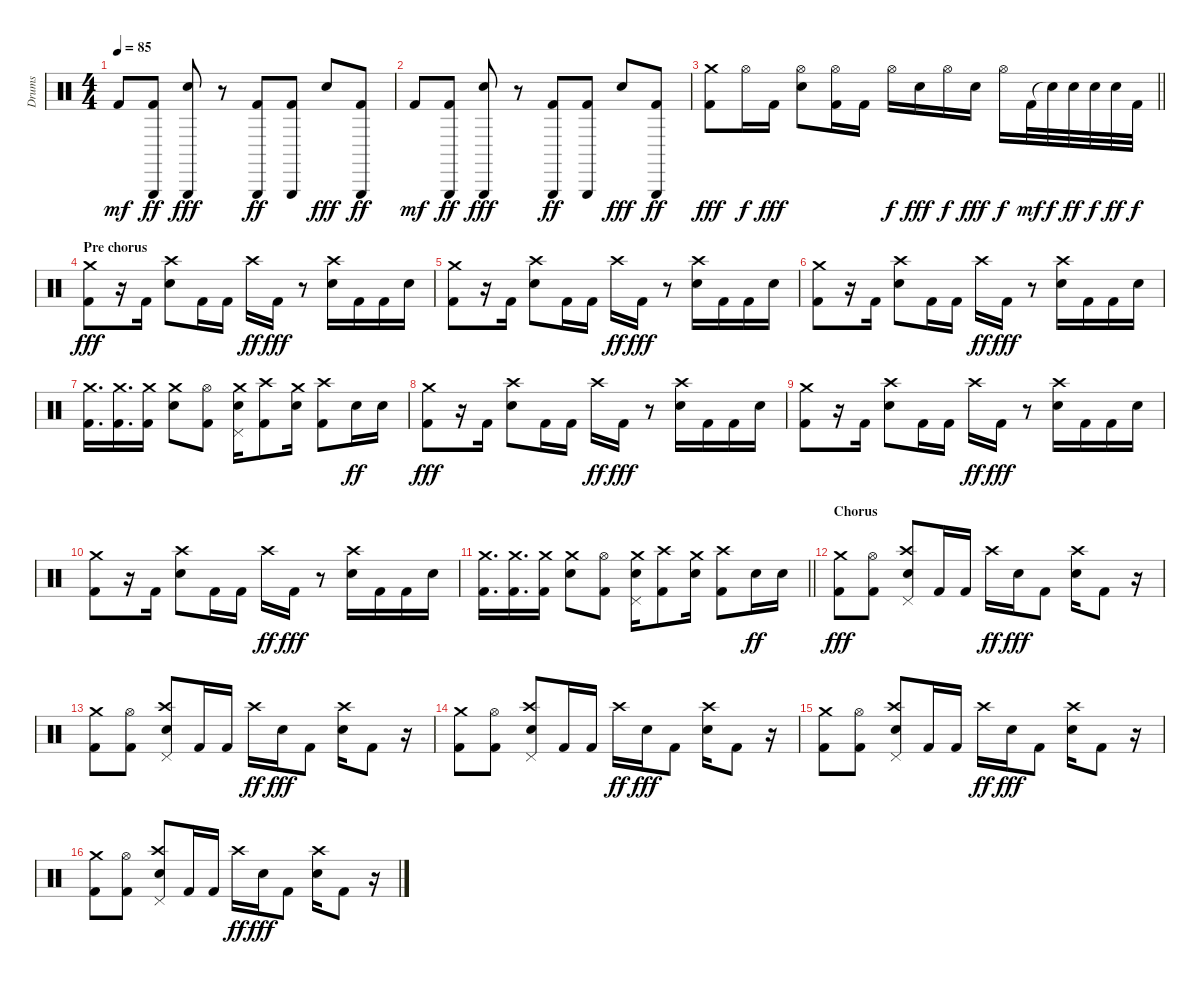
\track ("Drums" "Drums") {instrument percussion}
\staff {score}
\articulation defaults
\ts (4 4)
\tempo 85
\clef neutral
\ks c "Kick (hit) 2".8{dy mf}
("Triangle (hit)" "Kick (hit) 2").8{dy ff} ("Triangle (hit)" "Electric Snare (hit)").8{dy fff} r.8 ("Triangle (hit)" "Kick (hit) 2").8{dy ff} ("Triangle (hit)" "Kick (hit) 2").8 "Electric Snare (hit)".8{dy fff} ("Triangle (hit)" "Kick (hit) 2").8{dy ff} |
"Kick (hit) 2".8{dy mf} ("Triangle (hit)" "Kick (hit) 2").8{dy ff} ("Triangle (hit)" "Electric Snare (hit)").8{dy fff} r.8 ("Triangle (hit)" "Kick (hit) 2").8{dy ff} ("Triangle (hit)" "Kick (hit) 2").8 "Electric Snare (hit)".8{dy fff} ("Triangle (hit)" "Kick (hit) 2").8{dy ff} |
\barLineRight lightlight
("Crash medium (hit)" "Kick (hit) 2").8{dy fff} "Hi-Hat (open)".16{dy f} "Kick (hit) 2".16{dy fff} ("Hi-Hat (open)" "Electric Snare (hit)").8 ("Hi-Hat (open)" "Kick (hit) 2").16 "Kick (hit) 2".16 "Hi-Hat (open)".16{dy f} "Electric Snare (hit)".16{dy fff} "Hi-Hat (open)".16{dy f} "Electric Snare (hit)".16{dy fff} "Hi-Hat (open)".16{dy f} "Kick (hit) 2".32{dy mf} "Snare (hit)"{t}.32{dy f} "Electric Snare (hit)".32{dy ff} "Electric Snare (hit)".32{dy f} "Electric Snare (hit)".32{dy ff} "Kick (hit) 2".32{dy f} |
\section ("" "Pre chorus")
("Crash medium (hit)" "Kick (hit) 2").8{dy fff} r.16 "Kick (hit) 2".16 ("Crash high (hit)" "Electric Snare (hit)").8 "Kick (hit) 2".16 "Kick (hit) 2".16 "Crash high (hit)".16{dy ff} "Kick (hit) 2".16{dy fff} r.8 ("Crash high (hit)" "Electric Snare (hit)").16 "Kick (hit) 2".16 "Kick (hit) 2".16 "Electric Snare (hit)".16 |
("Crash medium (hit)" "Kick (hit) 2").8 r.16 "Kick (hit) 2".16 ("Crash high (hit)" "Electric Snare (hit)").8 "Kick (hit) 2".16 "Kick (hit) 2".16 "Crash high (hit)".16{dy ff} "Kick (hit) 2".16{dy fff} r.8 ("Crash high (hit)" "Electric Snare (hit)").16 "Kick (hit) 2".16 "Kick (hit) 2".16 "Electric Snare (hit)".16 |
("Crash medium (hit)" "Kick (hit) 2").8 r.16 "Kick (hit) 2".16 ("Crash high (hit)" "Electric Snare (hit)").8 "Kick (hit) 2".16 "Kick (hit) 2".16 "Crash high (hit)".16{dy ff} "Kick (hit) 2".16{dy fff} r.8 ("Crash high (hit)" "Electric Snare (hit)").16 "Kick (hit) 2".16 "Kick (hit) 2".16 "Electric Snare (hit)".16 |
("Crash medium (hit)" "Kick (hit) 2").16{d} ("Crash medium (hit)" "Kick (hit) 2").16{d} ("Crash medium (hit)" "Kick (hit) 2").16 ("Crash medium (hit)" "Electric Snare (hit)").8 ("Hi-Hat (open)" "Kick (hit) 2").8 ("Crash medium (hit)" "Pedal Hi-Hat (hit)" "Electric Snare (hit)").16 ("Crash high (hit)" "Kick (hit) 2").8 ("Crash medium (hit)" "Electric Snare (hit)").16 ("Crash high (hit)" "Kick (hit) 2").8 "Electric Snare (hit)".16{dy ff} "Electric Snare (hit)".16 |
("Crash medium (hit)" "Kick (hit) 2").8{dy fff} r.16 "Kick (hit) 2".16 ("Crash high (hit)" "Electric Snare (hit)").8 "Kick (hit) 2".16 "Kick (hit) 2".16 "Crash high (hit)".16{dy ff} "Kick (hit) 2".16{dy fff} r.8 ("Crash high (hit)" "Electric Snare (hit)").16 "Kick (hit) 2".16 "Kick (hit) 2".16 "Electric Snare (hit)".16 |
("Crash medium (hit)" "Kick (hit) 2").8 r.16 "Kick (hit) 2".16 ("Crash high (hit)" "Electric Snare (hit)").8 "Kick (hit) 2".16 "Kick (hit) 2".16 "Crash high (hit)".16{dy ff} "Kick (hit) 2".16{dy fff} r.8 ("Crash high (hit)" "Electric Snare (hit)").16 "Kick (hit) 2".16 "Kick (hit) 2".16 "Electric Snare (hit)".16 |
("Crash medium (hit)" "Kick (hit) 2").8 r.16 "Kick (hit) 2".16 ("Crash high (hit)" "Electric Snare (hit)").8 "Kick (hit) 2".16 "Kick (hit) 2".16 "Crash high (hit)".16{dy ff} "Kick (hit) 2".16{dy fff} r.8 ("Crash high (hit)" "Electric Snare (hit)").16 "Kick (hit) 2".16 "Kick (hit) 2".16 "Electric Snare (hit)".16 |
\barLineRight lightlight
("Crash medium (hit)" "Kick (hit) 2").16{d} ("Crash medium (hit)" "Kick (hit) 2").16{d} ("Crash medium (hit)" "Kick (hit) 2").16 ("Crash medium (hit)" "Electric Snare (hit)").8 ("Hi-Hat (open)" "Kick (hit) 2").8 ("Crash medium (hit)" "Pedal Hi-Hat (hit)" "Electric Snare (hit)").16 ("Crash high (hit)" "Kick (hit) 2").8 ("Crash medium (hit)" "Electric Snare (hit)").16 ("Crash high (hit)" "Kick (hit) 2").8 "Electric Snare (hit)".16{dy ff} "Electric Snare (hit)".16 |
\section ("" "Chorus")
("Crash medium (hit)" "Kick (hit) 2").8{dy fff} ("Hi-Hat (open)" "Kick (hit) 2").8 ("Crash high (hit)" "Pedal Hi-Hat (hit)" "Electric Snare (hit)").8 "Kick (hit) 2".16 "Kick (hit) 2".16 "Crash high (hit)".16{dy ff} "Electric Snare (hit)".16{dy fff} "Kick (hit) 2".8 ("Crash high (hit)" "Electric Snare (hit)").16 "Kick (hit) 2".8 r.16 |
("Crash medium (hit)" "Kick (hit) 2").8 ("Hi-Hat (open)" "Kick (hit) 2").8 ("Crash high (hit)" "Pedal Hi-Hat (hit)" "Electric Snare (hit)").8 "Kick (hit) 2".16 "Kick (hit) 2".16 "Crash high (hit)".16{dy ff} "Electric Snare (hit)".16{dy fff} "Kick (hit) 2".8 ("Crash high (hit)" "Electric Snare (hit)").16 "Kick (hit) 2".8 r.16 |
("Crash medium (hit)" "Kick (hit) 2").8 ("Hi-Hat (open)" "Kick (hit) 2").8 ("Crash high (hit)" "Pedal Hi-Hat (hit)" "Electric Snare (hit)").8 "Kick (hit) 2".16 "Kick (hit) 2".16 "Crash high (hit)".16{dy ff} "Electric Snare (hit)".16{dy fff} "Kick (hit) 2".8 ("Crash high (hit)" "Electric Snare (hit)").16 "Kick (hit) 2".8 r.16 |
("Crash medium (hit)" "Kick (hit) 2").8 ("Hi-Hat (open)" "Kick (hit) 2").8 ("Crash high (hit)" "Pedal Hi-Hat (hit)" "Electric Snare (hit)").8 "Kick (hit) 2".16 "Kick (hit) 2".16 "Crash high (hit)".16{dy ff} "Electric Snare (hit)".16{dy fff} "Kick (hit) 2".8 ("Crash high (hit)" "Electric Snare (hit)").16 "Kick (hit) 2".8 r.16 |
("Crash medium (hit)" "Kick (hit) 2").8 ("Hi-Hat (open)" "Kick (hit) 2").8 ("Crash high (hit)" "Pedal Hi-Hat (hit)" "Electric Snare (hit)").8 "Kick (hit) 2".16 "Kick (hit) 2".16 "Crash high (hit)".16{dy ff} "Electric Snare (hit)".16{dy fff} "Kick (hit) 2".8 ("Crash high (hit)" "Electric Snare (hit)").16 "Kick (hit) 2".8 r.16
